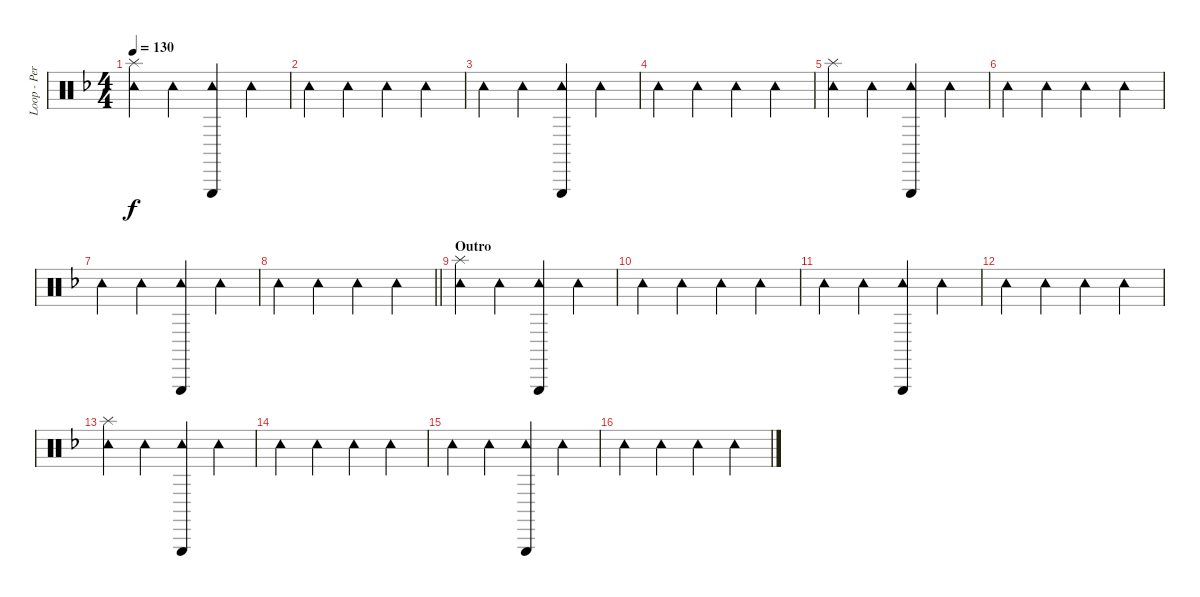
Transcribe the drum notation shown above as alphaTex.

\track ("Loop - Percussion FX" "Loop - Per") {instrument percussion}
\staff {score}
\articulation defaults
\ts (4 4)
\tempo 130
\clef neutral
\ks f
("Tambourine (hit)" "Splash (hit)").4{dy f} "Tambourine (hit)".4 ("Tambourine (hit)" "Triangle (hit)").4 "Tambourine (hit)".4 |
"Tambourine (hit)".4 "Tambourine (hit)".4 "Tambourine (hit)".4 "Tambourine (hit)".4 |
"Tambourine (hit)".4 "Tambourine (hit)".4 ("Tambourine (hit)" "Triangle (hit)").4 "Tambourine (hit)".4 |
"Tambourine (hit)".4 "Tambourine (hit)".4 "Tambourine (hit)".4 "Tambourine (hit)".4 |
("Tambourine (hit)" "Splash (hit)").4 "Tambourine (hit)".4 ("Tambourine (hit)" "Triangle (hit)").4 "Tambourine (hit)".4 |
"Tambourine (hit)".4 "Tambourine (hit)".4 "Tambourine (hit)".4 "Tambourine (hit)".4 |
"Tambourine (hit)".4 "Tambourine (hit)".4 ("Tambourine (hit)" "Triangle (hit)").4 "Tambourine (hit)".4 |
\barLineRight lightlight "Tambourine (hit)".4 "Tambourine (hit)".4 "Tambourine (hit)".4 "Tambourine (hit)".4
|
\section ("" "Outro")
("Tambourine (hit)" "Splash (hit)").4 "Tambourine (hit)".4 ("Tambourine (hit)" "Triangle (hit)").4 "Tambourine (hit)".4 |
"Tambourine (hit)".4 "Tambourine (hit)".4 "Tambourine (hit)".4 "Tambourine (hit)".4 |
"Tambourine (hit)".4 "Tambourine (hit)".4 ("Tambourine (hit)" "Triangle (hit)").4 "Tambourine (hit)".4 |
"Tambourine (hit)".4 "Tambourine (hit)".4 "Tambourine (hit)".4 "Tambourine (hit)".4 |
("Tambourine (hit)" "Splash (hit)").4 "Tambourine (hit)".4 ("Tambourine (hit)" "Triangle (hit)").4 "Tambourine (hit)".4 |
"Tambourine (hit)".4 "Tambourine (hit)".4 "Tambourine (hit)".4 "Tambourine (hit)".4 |
"Tambourine (hit)".4 "Tambourine (hit)".4 ("Tambourine (hit)" "Triangle (hit)").4 "Tambourine (hit)".4 |
"Tambourine (hit)".4 "Tambourine (hit)".4 "Tambourine (hit)".4 "Tambourine (hit)".4
